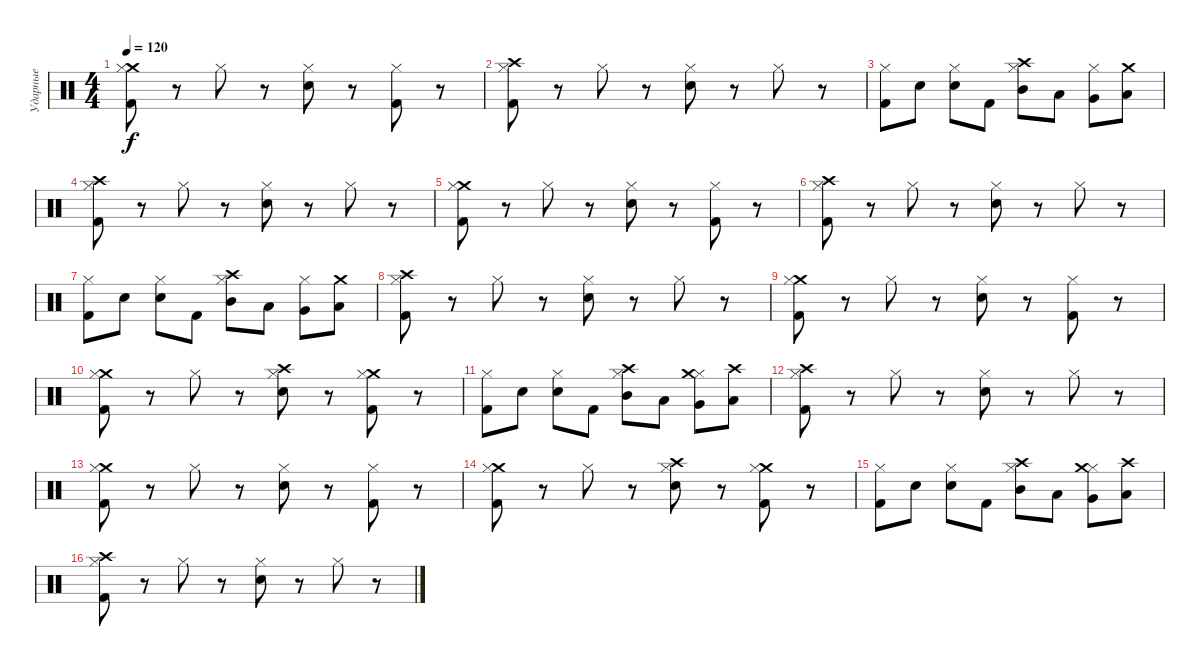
\track ("Ударные" "Ударные") {instrument percussion}
\staff {score}
\articulation defaults
\ts (4 4)
\tempo 120
\clef neutral
\ks c
("Crash medium (hit)" "Hi-Hat (closed)" "Kick (hit) 2").8{dy f} r.8 "Hi-Hat (closed)".8 r.8 ("Snare (hit) 2" "Hi-Hat (closed)").8 r.8 ("Hi-Hat (closed)" "Kick (hit) 2").8 r.8 |
("Crash high (hit)" "Hi-Hat (closed)" "Kick (hit) 2").8 r.8 "Hi-Hat (closed)".8 r.8 ("Snare (hit) 2" "Hi-Hat (closed)").8 r.8 "Hi-Hat (closed)".8 r.8 |
("Hi-Hat (closed)" "Kick (hit) 2").8 "Snare (hit) 2".8 ("Snare (hit) 2" "Hi-Hat (closed)").8 "Kick (hit) 2".8 ("Mid Tom (hit)" "Hi-Hat (closed)" "Crash high (hit)").8 "Low Tom (hit)".8 ("Very Low Tom (hit)" "Hi-Hat (closed)").8 ("Low Floor Tom (hit)" "Crash medium (hit)").8 |
("Crash high (hit)" "Hi-Hat (closed)" "Kick (hit) 2").8 r.8 "Hi-Hat (closed)".8 r.8 ("Snare (hit) 2" "Hi-Hat (closed)").8 r.8 "Hi-Hat (closed)".8 r.8 |
("Crash medium (hit)" "Hi-Hat (closed)" "Kick (hit) 2").8 r.8 "Hi-Hat (closed)".8 r.8 ("Snare (hit) 2" "Hi-Hat (closed)").8 r.8 ("Hi-Hat (closed)" "Kick (hit) 2").8 r.8 |
("Crash high (hit)" "Hi-Hat (closed)" "Kick (hit) 2").8 r.8 "Hi-Hat (closed)".8 r.8 ("Snare (hit) 2" "Hi-Hat (closed)").8 r.8 "Hi-Hat (closed)".8 r.8 |
("Hi-Hat (closed)" "Kick (hit) 2").8 "Snare (hit) 2".8 ("Snare (hit) 2" "Hi-Hat (closed)").8 "Kick (hit) 2".8 ("Mid Tom (hit)" "Hi-Hat (closed)" "Crash high (hit)").8 "Low Tom (hit)".8 ("Very Low Tom (hit)" "Hi-Hat (closed)").8 ("Low Floor Tom (hit)" "Crash medium (hit)").8 |
("Crash high (hit)" "Hi-Hat (closed)" "Kick (hit) 2").8 r.8 "Hi-Hat (closed)".8 r.8 ("Snare (hit) 2" "Hi-Hat (closed)").8 r.8 "Hi-Hat (closed)".8 r.8 |
("Crash medium (hit)" "Hi-Hat (closed)" "Kick (hit) 2").8 r.8 "Hi-Hat (closed)".8 r.8 ("Snare (hit) 2" "Hi-Hat (closed)").8 r.8 ("Hi-Hat (closed)" "Kick (hit) 2").8 r.8 |
("Crash medium (hit)" "Hi-Hat (closed)" "Kick (hit) 2").8 r.8 "Hi-Hat (closed)".8 r.8 ("Snare (hit) 2" "Hi-Hat (closed)" "Crash high (hit)").8 r.8 ("Crash medium (hit)" "Hi-Hat (closed)" "Kick (hit) 2").8 r.8 |
("Hi-Hat (closed)" "Kick (hit) 2").8 "Snare (hit) 2".8 ("Snare (hit) 2" "Hi-Hat (closed)").8 "Kick (hit) 2".8 ("Mid Tom (hit)" "Hi-Hat (closed)" "Crash high (hit)").8 "Low Tom (hit)".8 ("Very Low Tom (hit)" "Hi-Hat (closed)" "Crash medium (hit)").8 ("Low Floor Tom (hit)" "Crash high (hit)").8 |
("Crash high (hit)" "Hi-Hat (closed)" "Kick (hit) 2").8 r.8 "Hi-Hat (closed)".8 r.8 ("Snare (hit) 2" "Hi-Hat (closed)").8 r.8 "Hi-Hat (closed)".8 r.8 |
("Crash medium (hit)" "Hi-Hat (closed)" "Kick (hit) 2").8 r.8 "Hi-Hat (closed)".8 r.8 ("Snare (hit) 2" "Hi-Hat (closed)").8 r.8 ("Hi-Hat (closed)" "Kick (hit) 2").8 r.8 |
("Crash medium (hit)" "Hi-Hat (closed)" "Kick (hit) 2").8 r.8 "Hi-Hat (closed)".8 r.8 ("Snare (hit) 2" "Hi-Hat (closed)" "Crash high (hit)").8 r.8 ("Crash medium (hit)" "Hi-Hat (closed)" "Kick (hit) 2").8 r.8 |
("Hi-Hat (closed)" "Kick (hit) 2").8 "Snare (hit) 2".8 ("Snare (hit) 2" "Hi-Hat (closed)").8 "Kick (hit) 2".8 ("Mid Tom (hit)" "Hi-Hat (closed)" "Crash high (hit)").8 "Low Tom (hit)".8 ("Very Low Tom (hit)" "Hi-Hat (closed)" "Crash medium (hit)").8 ("Low Floor Tom (hit)" "Crash high (hit)").8 |
("Crash high (hit)" "Hi-Hat (closed)" "Kick (hit) 2").8 r.8 "Hi-Hat (closed)".8 r.8 ("Snare (hit) 2" "Hi-Hat (closed)").8 r.8 "Hi-Hat (closed)".8 r.8
